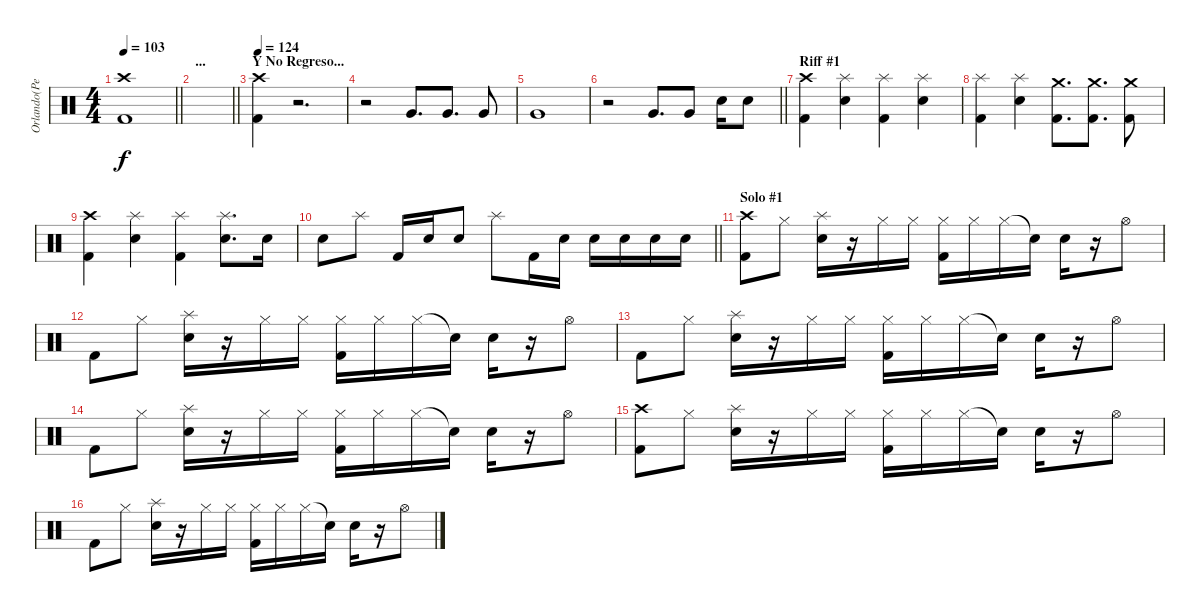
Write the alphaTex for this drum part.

\track ("Orlando(Percusión)" "Orlando(Pe") {instrument percussion}
\staff {score}
\articulation defaults
\ts (4 4)
\tempo 103
\clef neutral
\barLineRight lightlight
\ks c
("Crash high (hit)" "Kick (hit) 2").1{dy f} |
\section ("" "...")
\barLineRight lightlight
|
\section ("" "Y No Regreso...")
\tempo 124
("Crash high (hit)" "Kick (hit) 2").4 r.2{d} |
r.2 "Very Low Tom (hit)".8{d} "Very Low Tom (hit)".8{d} "Very Low Tom (hit)".8 |
"Very Low Tom (hit)".1 |
\barLineRight lightlight
r.2 "Very Low Tom (hit)".8{d} "Very Low Tom (hit)".8 "Electric Snare (hit)".16 "Electric Snare (hit)".8 |
\section ("" "Riff #1")
("Crash high (hit)" "Kick (hit) 2").4 ("Splash (hit)" "Electric Snare (hit)").4 ("Splash (hit)" "Kick (hit) 2").4 ("Splash (hit)" "Electric Snare (hit)").4 |
("Splash (hit)" "Kick (hit) 2").4 ("Splash (hit)" "Electric Snare (hit)").4 ("Crash medium (hit)" "Kick (hit) 2").8{d} ("Crash medium (hit)" "Kick (hit) 2").8{d} ("Crash medium (hit)" "Kick (hit) 2").8 |
("Crash high (hit)" "Kick (hit) 2").4 ("Splash (hit)" "Electric Snare (hit)").4 ("Splash (hit)" "Kick (hit) 2").4 ("Splash (hit)" "Electric Snare (hit)").8{d} "Electric Snare (hit)".16 |
\barLineRight lightlight "Electric Snare (hit)".8 "Splash (hit)".8 "Kick (hit) 2".16 "Electric Snare (hit)".16 "Electric Snare (hit)".8 "Splash (hit)".8 "Kick (hit) 2".16 "Electric Snare (hit)".16 "Electric Snare (hit)".16 "Electric Snare (hit)".16 "Electric Snare (hit)".16 "Electric Snare (hit)".16
|
\section ("" "Solo #1")
("Crash high (hit)" "Kick (hit) 2").8 "Hi-Hat (closed)".8 ("Splash (hit)" "Electric Snare (hit)").16 r.16 "Hi-Hat (closed)".16 "Hi-Hat (closed)".16 ("Hi-Hat (closed)" "Kick (hit) 2").16 "Hi-Hat (closed)".16 "Hi-Hat (closed)".16 "Snare (hit)"{t}.16 "Electric Snare (hit)".16 r.16 "Hi-Hat (open)".8 |
"Kick (hit) 2".8 "Hi-Hat (closed)".8 ("Splash (hit)" "Electric Snare (hit)").16 r.16 "Hi-Hat (closed)".16 "Hi-Hat (closed)".16 ("Hi-Hat (closed)" "Kick (hit) 2").16 "Hi-Hat (closed)".16 "Hi-Hat (closed)".16 "Snare (hit)"{t}.16 "Electric Snare (hit)".16 r.16 "Hi-Hat (open)".8 |
"Kick (hit) 2".8 "Hi-Hat (closed)".8 ("Splash (hit)" "Electric Snare (hit)").16 r.16 "Hi-Hat (closed)".16 "Hi-Hat (closed)".16 ("Hi-Hat (closed)" "Kick (hit) 2").16 "Hi-Hat (closed)".16 "Hi-Hat (closed)".16 "Snare (hit)"{t}.16 "Electric Snare (hit)".16 r.16 "Hi-Hat (open)".8 |
"Kick (hit) 2".8 "Hi-Hat (closed)".8 ("Splash (hit)" "Electric Snare (hit)").16 r.16 "Hi-Hat (closed)".16 "Hi-Hat (closed)".16 ("Hi-Hat (closed)" "Kick (hit) 2").16 "Hi-Hat (closed)".16 "Hi-Hat (closed)".16 "Snare (hit)"{t}.16 "Electric Snare (hit)".16 r.16 "Hi-Hat (open)".8 |
("Crash high (hit)" "Kick (hit) 2").8 "Hi-Hat (closed)".8 ("Splash (hit)" "Electric Snare (hit)").16 r.16 "Hi-Hat (closed)".16 "Hi-Hat (closed)".16 ("Hi-Hat (closed)" "Kick (hit) 2").16 "Hi-Hat (closed)".16 "Hi-Hat (closed)".16 "Snare (hit)"{t}.16 "Electric Snare (hit)".16 r.16 "Hi-Hat (open)".8 |
"Kick (hit) 2".8 "Hi-Hat (closed)".8 ("Splash (hit)" "Electric Snare (hit)").16 r.16 "Hi-Hat (closed)".16 "Hi-Hat (closed)".16 ("Hi-Hat (closed)" "Kick (hit) 2").16 "Hi-Hat (closed)".16 "Hi-Hat (closed)".16 "Snare (hit)"{t}.16 "Electric Snare (hit)".16 r.16 "Hi-Hat (open)".8
